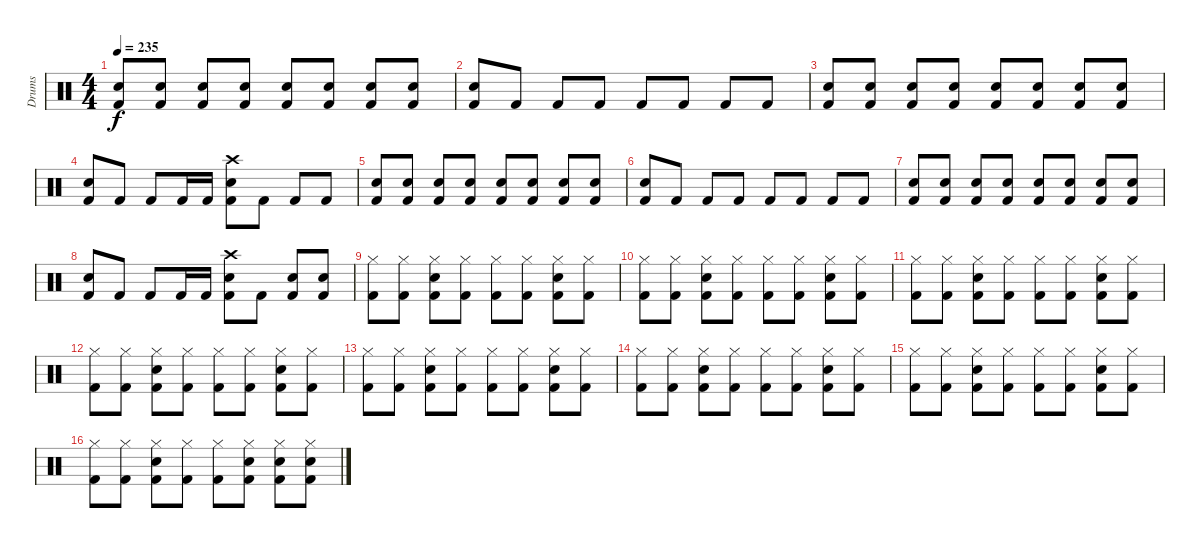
\track ("Drums" "Drums") {instrument percussion}
\staff {score}
\articulation defaults
\ts (4 4)
\tempo 235
\clef neutral
\ks c
("Snare (hit) 2" "Kick (hit) 2").8{dy f} ("Snare (hit) 2" "Kick (hit) 2").8 ("Snare (hit) 2" "Kick (hit) 2").8 ("Snare (hit) 2" "Kick (hit) 2").8 ("Snare (hit) 2" "Kick (hit) 2").8 ("Snare (hit) 2" "Kick (hit) 2").8 ("Snare (hit) 2" "Kick (hit) 2").8 ("Snare (hit) 2" "Kick (hit) 2").8 |
("Snare (hit) 2" "Kick (hit) 2").8 "Kick (hit) 2".8 "Kick (hit) 2".8 "Kick (hit) 2".8 "Kick (hit) 2".8 "Kick (hit) 2".8 "Kick (hit) 2".8 "Kick (hit) 2".8 |
("Snare (hit) 2" "Kick (hit) 2").8 ("Snare (hit) 2" "Kick (hit) 2").8 ("Snare (hit) 2" "Kick (hit) 2").8 ("Snare (hit) 2" "Kick (hit) 2").8 ("Snare (hit) 2" "Kick (hit) 2").8 ("Snare (hit) 2" "Kick (hit) 2").8 ("Snare (hit) 2" "Kick (hit) 2").8 ("Snare (hit) 2" "Kick (hit) 2").8 |
("Snare (hit) 2" "Kick (hit) 2").8 "Kick (hit) 2".8 "Kick (hit) 2".8 "Kick (hit) 2".16 "Kick (hit) 2".16 ("Snare (hit) 2" "Crash high (hit)" "Kick (hit) 2").8 "Kick (hit) 2".8 "Kick (hit) 2".8 "Kick (hit) 2".8 |
("Snare (hit) 2" "Kick (hit) 2").8 ("Snare (hit) 2" "Kick (hit) 2").8 ("Snare (hit) 2" "Kick (hit) 2").8 ("Snare (hit) 2" "Kick (hit) 2").8 ("Snare (hit) 2" "Kick (hit) 2").8 ("Snare (hit) 2" "Kick (hit) 2").8 ("Snare (hit) 2" "Kick (hit) 2").8 ("Snare (hit) 2" "Kick (hit) 2").8 |
("Snare (hit) 2" "Kick (hit) 2").8 "Kick (hit) 2".8 "Kick (hit) 2".8 "Kick (hit) 2".8 "Kick (hit) 2".8 "Kick (hit) 2".8 "Kick (hit) 2".8 "Kick (hit) 2".8 |
("Snare (hit) 2" "Kick (hit) 2").8 ("Snare (hit) 2" "Kick (hit) 2").8 ("Snare (hit) 2" "Kick (hit) 2").8 ("Snare (hit) 2" "Kick (hit) 2").8 ("Snare (hit) 2" "Kick (hit) 2").8 ("Snare (hit) 2" "Kick (hit) 2").8 ("Snare (hit) 2" "Kick (hit) 2").8 ("Snare (hit) 2" "Kick (hit) 2").8 |
("Snare (hit) 2" "Kick (hit) 2").8 "Kick (hit) 2".8 "Kick (hit) 2".8 "Kick (hit) 2".16 "Kick (hit) 2".16 ("Snare (hit) 2" "Crash high (hit)" "Kick (hit) 2").8 "Kick (hit) 2".8 ("Snare (hit) 2" "Kick (hit) 2").8 ("Snare (hit) 2" "Kick (hit) 2").8 |
("Kick (hit) 2" "Hi-Hat (closed)").8 ("Kick (hit) 2" "Hi-Hat (closed)").8 ("Kick (hit) 2" "Snare (hit) 2" "Hi-Hat (closed)").8 ("Kick (hit) 2" "Hi-Hat (closed)").8 ("Kick (hit) 2" "Hi-Hat (closed)").8 ("Kick (hit) 2" "Hi-Hat (closed)").8 ("Kick (hit) 2" "Hi-Hat (closed)" "Snare (hit) 2").8 ("Kick (hit) 2" "Hi-Hat (closed)").8 |
("Kick (hit) 2" "Hi-Hat (closed)").8 ("Kick (hit) 2" "Hi-Hat (closed)").8 ("Kick (hit) 2" "Snare (hit) 2" "Hi-Hat (closed)").8 ("Kick (hit) 2" "Hi-Hat (closed)").8 ("Kick (hit) 2" "Hi-Hat (closed)").8 ("Kick (hit) 2" "Hi-Hat (closed)").8 ("Kick (hit) 2" "Hi-Hat (closed)" "Snare (hit) 2").8 ("Kick (hit) 2" "Hi-Hat (closed)").8 |
("Kick (hit) 2" "Hi-Hat (closed)").8 ("Kick (hit) 2" "Hi-Hat (closed)").8 ("Kick (hit) 2" "Snare (hit) 2" "Hi-Hat (closed)").8 ("Kick (hit) 2" "Hi-Hat (closed)").8 ("Kick (hit) 2" "Hi-Hat (closed)").8 ("Kick (hit) 2" "Hi-Hat (closed)").8 ("Kick (hit) 2" "Hi-Hat (closed)" "Snare (hit) 2").8 ("Kick (hit) 2" "Hi-Hat (closed)").8 |
("Kick (hit) 2" "Hi-Hat (closed)").8 ("Kick (hit) 2" "Hi-Hat (closed)").8 ("Kick (hit) 2" "Snare (hit) 2" "Hi-Hat (closed)").8 ("Kick (hit) 2" "Hi-Hat (closed)").8 ("Kick (hit) 2" "Hi-Hat (closed)").8 ("Kick (hit) 2" "Hi-Hat (closed)").8 ("Kick (hit) 2" "Hi-Hat (closed)" "Snare (hit) 2").8 ("Kick (hit) 2" "Hi-Hat (closed)").8 |
("Kick (hit) 2" "Hi-Hat (closed)").8 ("Kick (hit) 2" "Hi-Hat (closed)").8 ("Kick (hit) 2" "Snare (hit) 2" "Hi-Hat (closed)").8 ("Kick (hit) 2" "Hi-Hat (closed)").8 ("Kick (hit) 2" "Hi-Hat (closed)").8 ("Kick (hit) 2" "Hi-Hat (closed)").8 ("Kick (hit) 2" "Hi-Hat (closed)" "Snare (hit) 2").8 ("Kick (hit) 2" "Hi-Hat (closed)").8 |
("Kick (hit) 2" "Hi-Hat (closed)").8 ("Kick (hit) 2" "Hi-Hat (closed)").8 ("Kick (hit) 2" "Snare (hit) 2" "Hi-Hat (closed)").8 ("Kick (hit) 2" "Hi-Hat (closed)").8 ("Kick (hit) 2" "Hi-Hat (closed)").8 ("Kick (hit) 2" "Hi-Hat (closed)").8 ("Kick (hit) 2" "Hi-Hat (closed)" "Snare (hit) 2").8 ("Kick (hit) 2" "Hi-Hat (closed)").8 |
("Kick (hit) 2" "Hi-Hat (closed)").8 ("Kick (hit) 2" "Hi-Hat (closed)").8 ("Kick (hit) 2" "Snare (hit) 2" "Hi-Hat (closed)").8 ("Kick (hit) 2" "Hi-Hat (closed)").8 ("Kick (hit) 2" "Hi-Hat (closed)").8 ("Kick (hit) 2" "Hi-Hat (closed)").8 ("Kick (hit) 2" "Hi-Hat (closed)" "Snare (hit) 2").8 ("Kick (hit) 2" "Hi-Hat (closed)").8 |
("Kick (hit) 2" "Hi-Hat (closed)").8 ("Kick (hit) 2" "Hi-Hat (closed)").8 ("Kick (hit) 2" "Snare (hit) 2" "Hi-Hat (closed)").8 ("Kick (hit) 2" "Hi-Hat (closed)").8 ("Kick (hit) 2" "Hi-Hat (closed)").8 ("Kick (hit) 2" "Hi-Hat (closed)" "Snare (hit) 2").8 ("Kick (hit) 2" "Hi-Hat (closed)" "Snare (hit) 2").8 ("Kick (hit) 2" "Hi-Hat (closed)" "Snare (hit) 2").8
